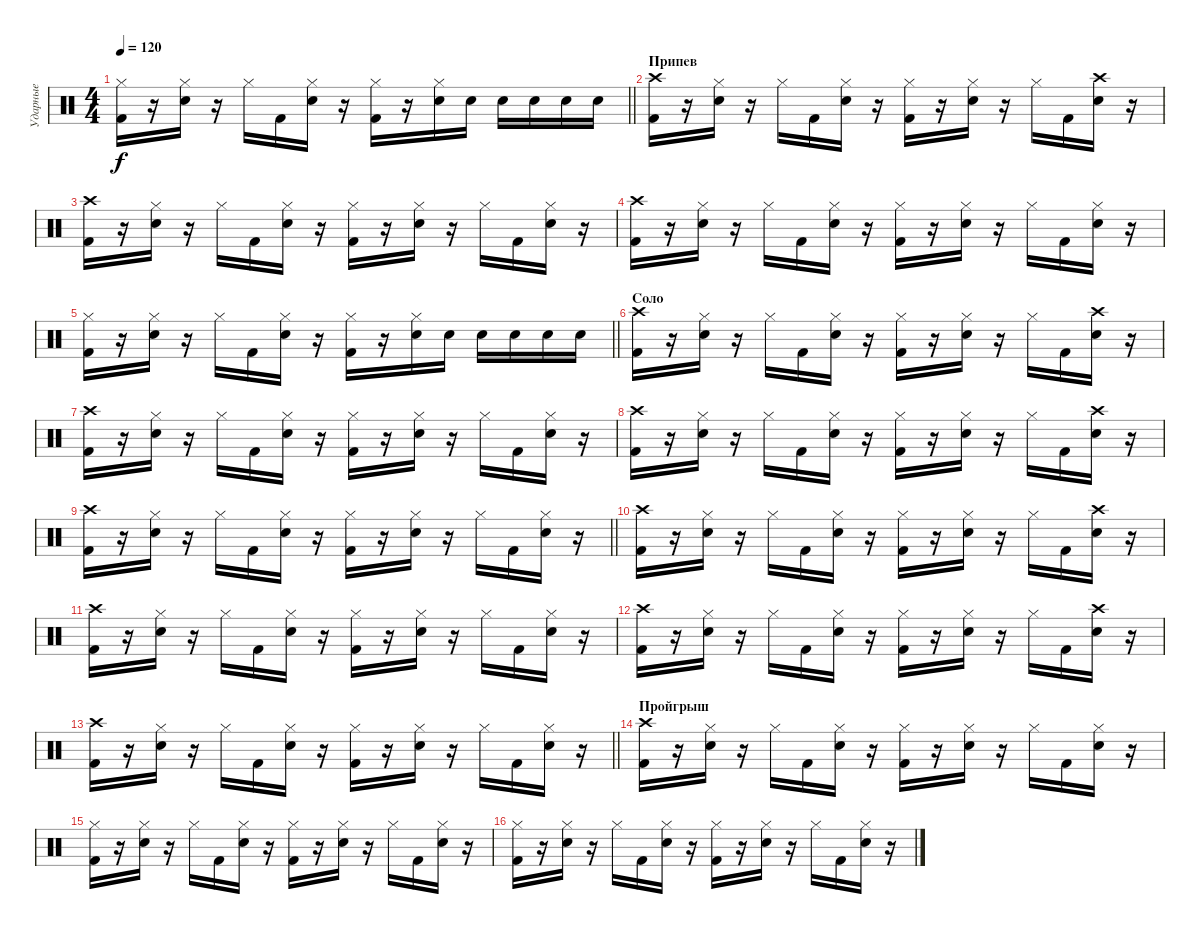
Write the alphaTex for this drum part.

\track ("Ударные" "Ударные") {instrument percussion}
\staff {score}
\articulation defaults
\ts (4 4)
\tempo 120
\clef neutral
\barLineRight lightlight
\ks c
("Kick (hit) 2" "Hi-Hat (closed)").16{dy f} r.16 ("Electric Snare (hit)" "Hi-Hat (closed)").16 r.16 "Hi-Hat (closed)".16 "Kick (hit) 2".16 ("Electric Snare (hit)" "Hi-Hat (closed)").16 r.16 ("Kick (hit) 2" "Hi-Hat (closed)").16 r.16 ("Electric Snare (hit)" "Hi-Hat (closed)").16 "Electric Snare (hit)".16 "Electric Snare (hit)".16 "Electric Snare (hit)".16 "Electric Snare (hit)".16 "Electric Snare (hit)".16 |
\section ("" "Припев")
("Kick (hit) 2" "Crash high (hit)").16 r.16 ("Electric Snare (hit)" "Hi-Hat (closed)").16 r.16 "Hi-Hat (closed)".16 "Kick (hit) 2".16 ("Electric Snare (hit)" "Hi-Hat (closed)").16 r.16 ("Kick (hit) 2" "Hi-Hat (closed)").16 r.16 ("Electric Snare (hit)" "Hi-Hat (closed)").16 r.16 "Hi-Hat (closed)".16 "Kick (hit) 2".16 ("Electric Snare (hit)" "Crash high (hit)").16 r.16 |
("Kick (hit) 2" "Crash high (hit)").16 r.16 ("Electric Snare (hit)" "Hi-Hat (closed)").16 r.16 "Hi-Hat (closed)".16 "Kick (hit) 2".16 ("Electric Snare (hit)" "Hi-Hat (closed)").16 r.16 ("Kick (hit) 2" "Hi-Hat (closed)").16 r.16 ("Electric Snare (hit)" "Hi-Hat (closed)").16 r.16 "Hi-Hat (closed)".16 "Kick (hit) 2".16 ("Electric Snare (hit)" "Hi-Hat (closed)").16 r.16 |
("Kick (hit) 2" "Crash high (hit)").16 r.16 ("Electric Snare (hit)" "Hi-Hat (closed)").16 r.16 "Hi-Hat (closed)".16 "Kick (hit) 2".16 ("Electric Snare (hit)" "Hi-Hat (closed)").16 r.16 ("Kick (hit) 2" "Hi-Hat (closed)").16 r.16 ("Electric Snare (hit)" "Hi-Hat (closed)").16 r.16 "Hi-Hat (closed)".16 "Kick (hit) 2".16 ("Electric Snare (hit)" "Hi-Hat (closed)").16 r.16 |
\barLineRight lightlight
("Kick (hit) 2" "Hi-Hat (closed)").16 r.16 ("Electric Snare (hit)" "Hi-Hat (closed)").16 r.16 "Hi-Hat (closed)".16 "Kick (hit) 2".16 ("Electric Snare (hit)" "Hi-Hat (closed)").16 r.16 ("Kick (hit) 2" "Hi-Hat (closed)").16 r.16 ("Electric Snare (hit)" "Hi-Hat (closed)").16 "Electric Snare (hit)".16 "Electric Snare (hit)".16 "Electric Snare (hit)".16 "Electric Snare (hit)".16 "Electric Snare (hit)".16 |
\section ("" "Соло")
("Kick (hit) 2" "Crash high (hit)").16 r.16 ("Electric Snare (hit)" "Hi-Hat (closed)").16 r.16 "Hi-Hat (closed)".16 "Kick (hit) 2".16 ("Electric Snare (hit)" "Hi-Hat (closed)").16 r.16 ("Kick (hit) 2" "Hi-Hat (closed)").16 r.16 ("Electric Snare (hit)" "Hi-Hat (closed)").16 r.16 "Hi-Hat (closed)".16 "Kick (hit) 2".16 ("Electric Snare (hit)" "Crash high (hit)").16 r.16 |
("Kick (hit) 2" "Crash high (hit)").16 r.16 ("Electric Snare (hit)" "Hi-Hat (closed)").16 r.16 "Hi-Hat (closed)".16 "Kick (hit) 2".16 ("Electric Snare (hit)" "Hi-Hat (closed)").16 r.16 ("Kick (hit) 2" "Hi-Hat (closed)").16 r.16 ("Electric Snare (hit)" "Hi-Hat (closed)").16 r.16 "Hi-Hat (closed)".16 "Kick (hit) 2".16 ("Electric Snare (hit)" "Hi-Hat (closed)").16 r.16 |
("Kick (hit) 2" "Crash high (hit)").16 r.16 ("Electric Snare (hit)" "Hi-Hat (closed)").16 r.16 "Hi-Hat (closed)".16 "Kick (hit) 2".16 ("Electric Snare (hit)" "Hi-Hat (closed)").16 r.16 ("Kick (hit) 2" "Hi-Hat (closed)").16 r.16 ("Electric Snare (hit)" "Hi-Hat (closed)").16 r.16 "Hi-Hat (closed)".16 "Kick (hit) 2".16 ("Electric Snare (hit)" "Crash high (hit)").16 r.16 |
\barLineRight lightlight
("Kick (hit) 2" "Crash high (hit)").16 r.16 ("Electric Snare (hit)" "Hi-Hat (closed)").16 r.16 "Hi-Hat (closed)".16 "Kick (hit) 2".16 ("Electric Snare (hit)" "Hi-Hat (closed)").16 r.16 ("Kick (hit) 2" "Hi-Hat (closed)").16 r.16 ("Electric Snare (hit)" "Hi-Hat (closed)").16 r.16 "Hi-Hat (closed)".16 "Kick (hit) 2".16 ("Electric Snare (hit)" "Hi-Hat (closed)").16 r.16 |
("Kick (hit) 2" "Crash high (hit)").16 r.16 ("Electric Snare (hit)" "Hi-Hat (closed)").16 r.16 "Hi-Hat (closed)".16 "Kick (hit) 2".16 ("Electric Snare (hit)" "Hi-Hat (closed)").16 r.16 ("Kick (hit) 2" "Hi-Hat (closed)").16 r.16 ("Electric Snare (hit)" "Hi-Hat (closed)").16 r.16 "Hi-Hat (closed)".16 "Kick (hit) 2".16 ("Electric Snare (hit)" "Crash high (hit)").16 r.16 |
("Kick (hit) 2" "Crash high (hit)").16 r.16 ("Electric Snare (hit)" "Hi-Hat (closed)").16 r.16 "Hi-Hat (closed)".16 "Kick (hit) 2".16 ("Electric Snare (hit)" "Hi-Hat (closed)").16 r.16 ("Kick (hit) 2" "Hi-Hat (closed)").16 r.16 ("Electric Snare (hit)" "Hi-Hat (closed)").16 r.16 "Hi-Hat (closed)".16 "Kick (hit) 2".16 ("Electric Snare (hit)" "Hi-Hat (closed)").16 r.16 |
("Kick (hit) 2" "Crash high (hit)").16 r.16 ("Electric Snare (hit)" "Hi-Hat (closed)").16 r.16 "Hi-Hat (closed)".16 "Kick (hit) 2".16 ("Electric Snare (hit)" "Hi-Hat (closed)").16 r.16 ("Kick (hit) 2" "Hi-Hat (closed)").16 r.16 ("Electric Snare (hit)" "Hi-Hat (closed)").16 r.16 "Hi-Hat (closed)".16 "Kick (hit) 2".16 ("Electric Snare (hit)" "Crash high (hit)").16 r.16 |
\barLineRight lightlight
("Kick (hit) 2" "Crash high (hit)").16 r.16 ("Electric Snare (hit)" "Hi-Hat (closed)").16 r.16 "Hi-Hat (closed)".16 "Kick (hit) 2".16 ("Electric Snare (hit)" "Hi-Hat (closed)").16 r.16 ("Kick (hit) 2" "Hi-Hat (closed)").16 r.16 ("Electric Snare (hit)" "Hi-Hat (closed)").16 r.16 "Hi-Hat (closed)".16 "Kick (hit) 2".16 ("Electric Snare (hit)" "Hi-Hat (closed)").16 r.16 |
\section ("" "Пройгрыш")
("Kick (hit) 2" "Crash high (hit)").16 r.16 ("Electric Snare (hit)" "Hi-Hat (closed)").16 r.16 "Hi-Hat (closed)".16 "Kick (hit) 2".16 ("Electric Snare (hit)" "Hi-Hat (closed)").16 r.16 ("Kick (hit) 2" "Hi-Hat (closed)").16 r.16 ("Electric Snare (hit)" "Hi-Hat (closed)").16 r.16 "Hi-Hat (closed)".16 "Kick (hit) 2".16 ("Electric Snare (hit)" "Hi-Hat (closed)").16 r.16 |
("Kick (hit) 2" "Hi-Hat (closed)").16 r.16 ("Electric Snare (hit)" "Hi-Hat (closed)").16 r.16 "Hi-Hat (closed)".16 "Kick (hit) 2".16 ("Electric Snare (hit)" "Hi-Hat (closed)").16 r.16 ("Kick (hit) 2" "Hi-Hat (closed)").16 r.16 ("Electric Snare (hit)" "Hi-Hat (closed)").16 r.16 "Hi-Hat (closed)".16 "Kick (hit) 2".16 ("Electric Snare (hit)" "Hi-Hat (closed)").16 r.16 |
("Kick (hit) 2" "Hi-Hat (closed)").16 r.16 ("Electric Snare (hit)" "Hi-Hat (closed)").16 r.16 "Hi-Hat (closed)".16 "Kick (hit) 2".16 ("Electric Snare (hit)" "Hi-Hat (closed)").16 r.16 ("Kick (hit) 2" "Hi-Hat (closed)").16 r.16 ("Electric Snare (hit)" "Hi-Hat (closed)").16 r.16 "Hi-Hat (closed)".16 "Kick (hit) 2".16 ("Electric Snare (hit)" "Hi-Hat (closed)").16 r.16
